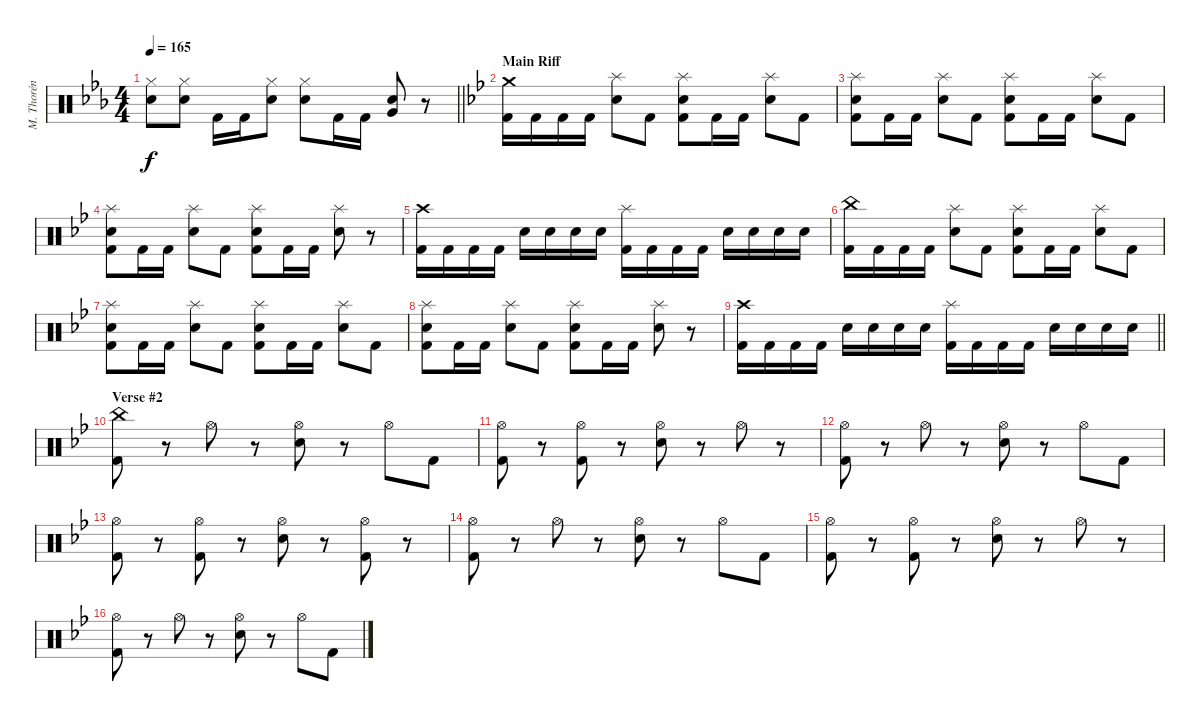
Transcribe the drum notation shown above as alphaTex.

\track ("M. Thorén (Drums)" "M. Thorén ") {instrument percussion}
\staff {score}
\articulation defaults
\ts (4 4)
\tempo 165
\clef neutral
\barLineRight lightlight
\ks cminor
("Hi-Hat (closed)" "Electric Snare (hit)").8{dy f} ("Hi-Hat (closed)" "Electric Snare (hit)").8 "Kick (hit) 2".16 "Kick (hit) 2".16 ("Hi-Hat (closed)" "Electric Snare (hit)").8 ("Hi-Hat (closed)" "Electric Snare (hit)").8 "Kick (hit) 2".16 "Kick (hit) 2".16 ("Electric Snare (hit)" "Very Low Tom (hit)").8 r.8 |
\section ("" "Main Riff")
\ks gminor
("Crash medium (hit)" "Kick (hit) 2").16 "Kick (hit) 2".16 "Kick (hit) 2".16 "Kick (hit) 2".16 ("Splash (hit)" "Electric Snare (hit)").8 "Kick (hit) 2".8 ("Splash (hit)" "Electric Snare (hit)" "Kick (hit) 2").8 "Kick (hit) 2".16 "Kick (hit) 2".16 ("Splash (hit)" "Electric Snare (hit)").8 "Kick (hit) 2".8 |
("Splash (hit)" "Electric Snare (hit)" "Kick (hit) 2").8 "Kick (hit) 2".16 "Kick (hit) 2".16 ("Splash (hit)" "Electric Snare (hit)").8 "Kick (hit) 2".8 ("Splash (hit)" "Electric Snare (hit)" "Kick (hit) 2").8 "Kick (hit) 2".16 "Kick (hit) 2".16 ("Splash (hit)" "Electric Snare (hit)").8 "Kick (hit) 2".8 |
("Splash (hit)" "Electric Snare (hit)" "Kick (hit) 2").8 "Kick (hit) 2".16 "Kick (hit) 2".16 ("Splash (hit)" "Electric Snare (hit)").8 "Kick (hit) 2".8 ("Splash (hit)" "Electric Snare (hit)" "Kick (hit) 2").8 "Kick (hit) 2".16 "Kick (hit) 2".16 ("Splash (hit)" "Electric Snare (hit)").8 r.8 |
("Crash high (hit)" "Kick (hit) 2").16 "Kick (hit) 2".16 "Kick (hit) 2".16 "Kick (hit) 2".16 "Electric Snare (hit)".16 "Electric Snare (hit)".16 "Electric Snare (hit)".16 "Electric Snare (hit)".16 ("Splash (hit)" "Kick (hit) 2").16 "Kick (hit) 2".16 "Kick (hit) 2".16 "Kick (hit) 2".16 "Electric Snare (hit)".16 "Electric Snare (hit)".16 "Electric Snare (hit)".16 "Electric Snare (hit)".16 |
("China (hit)" "Kick (hit) 2").16 "Kick (hit) 2".16 "Kick (hit) 2".16 "Kick (hit) 2".16 ("Splash (hit)" "Electric Snare (hit)").8 "Kick (hit) 2".8 ("Splash (hit)" "Electric Snare (hit)" "Kick (hit) 2").8 "Kick (hit) 2".16 "Kick (hit) 2".16 ("Splash (hit)" "Electric Snare (hit)").8 "Kick (hit) 2".8 |
("Splash (hit)" "Electric Snare (hit)" "Kick (hit) 2").8 "Kick (hit) 2".16 "Kick (hit) 2".16 ("Splash (hit)" "Electric Snare (hit)").8 "Kick (hit) 2".8 ("Splash (hit)" "Electric Snare (hit)" "Kick (hit) 2").8 "Kick (hit) 2".16 "Kick (hit) 2".16 ("Splash (hit)" "Electric Snare (hit)").8 "Kick (hit) 2".8 |
("Splash (hit)" "Electric Snare (hit)" "Kick (hit) 2").8 "Kick (hit) 2".16 "Kick (hit) 2".16 ("Splash (hit)" "Electric Snare (hit)").8 "Kick (hit) 2".8 ("Splash (hit)" "Electric Snare (hit)" "Kick (hit) 2").8 "Kick (hit) 2".16 "Kick (hit) 2".16 ("Splash (hit)" "Electric Snare (hit)").8 r.8 |
\barLineRight lightlight
("Crash high (hit)" "Kick (hit) 2").16 "Kick (hit) 2".16 "Kick (hit) 2".16 "Kick (hit) 2".16 "Electric Snare (hit)".16 "Electric Snare (hit)".16 "Electric Snare (hit)".16 "Electric Snare (hit)".16 ("Splash (hit)" "Kick (hit) 2").16 "Kick (hit) 2".16 "Kick (hit) 2".16 "Kick (hit) 2".16 "Electric Snare (hit)".16 "Electric Snare (hit)".16 "Electric Snare (hit)".16 "Electric Snare (hit)".16 |
\section ("" "Verse #2")
("China (hit)" "Kick (hit) 2").8 r.8 "Hi-Hat (open)".8 r.8 ("Hi-Hat (open)" "Electric Snare (hit)").8 r.8 "Hi-Hat (open)".8 "Kick (hit) 2".8 |
("Hi-Hat (open)" "Kick (hit) 2").8 r.8 ("Hi-Hat (open)" "Kick (hit) 2").8 r.8 ("Hi-Hat (open)" "Electric Snare (hit)").8 r.8 "Hi-Hat (open)".8 r.8 |
("Hi-Hat (open)" "Kick (hit) 2").8 r.8 "Hi-Hat (open)".8 r.8 ("Hi-Hat (open)" "Electric Snare (hit)").8 r.8 "Hi-Hat (open)".8 "Kick (hit) 2".8 |
("Hi-Hat (open)" "Kick (hit) 2").8 r.8 ("Hi-Hat (open)" "Kick (hit) 2").8 r.8 ("Hi-Hat (open)" "Electric Snare (hit)").8 r.8 ("Hi-Hat (open)" "Kick (hit) 2").8 r.8 |
("Hi-Hat (open)" "Kick (hit) 2").8 r.8 "Hi-Hat (open)".8 r.8 ("Hi-Hat (open)" "Electric Snare (hit)").8 r.8 "Hi-Hat (open)".8 "Kick (hit) 2".8 |
("Hi-Hat (open)" "Kick (hit) 2").8 r.8 ("Hi-Hat (open)" "Kick (hit) 2").8 r.8 ("Hi-Hat (open)" "Electric Snare (hit)").8 r.8 "Hi-Hat (open)".8 r.8 |
("Hi-Hat (open)" "Kick (hit) 2").8 r.8 "Hi-Hat (open)".8 r.8 ("Hi-Hat (open)" "Electric Snare (hit)").8 r.8 "Hi-Hat (open)".8 "Kick (hit) 2".8
